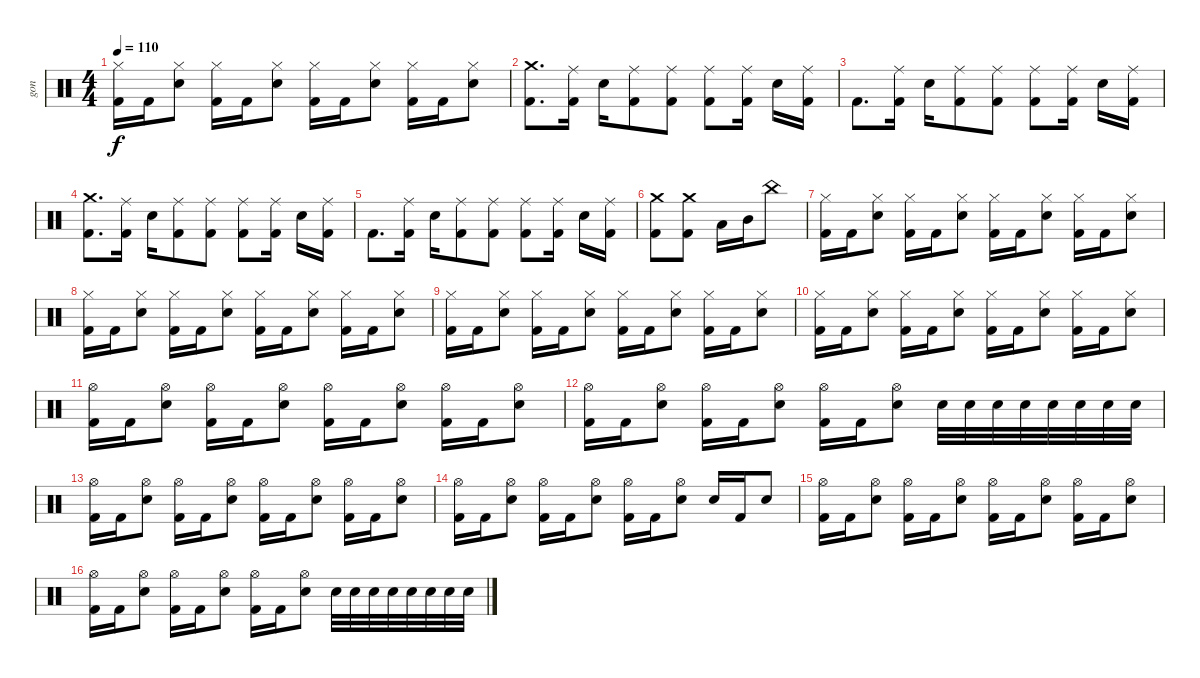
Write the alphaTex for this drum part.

\track ("gon" "gon") {instrument percussion}
\staff {score}
\articulation defaults
\ts (4 4)
\tempo 110
\clef neutral
\ks c
("Hi-Hat (closed)" "Kick (hit) 2").16{dy f} "Kick (hit) 2".16 ("Hi-Hat (closed)" "Electric Snare (hit)").8 ("Hi-Hat (closed)" "Kick (hit) 2").16 "Kick (hit) 2".16 ("Hi-Hat (closed)" "Electric Snare (hit)").8 ("Hi-Hat (closed)" "Kick (hit) 2").16 "Kick (hit) 2".16 ("Hi-Hat (closed)" "Electric Snare (hit)").8 ("Hi-Hat (closed)" "Kick (hit) 2").16 "Kick (hit) 2".16 ("Hi-Hat (closed)" "Electric Snare (hit)").8 |
("Crash medium (hit)" "Kick (hit) 2").8{d} ("Ride (middle)" "Kick (hit) 2").16 "Snare (hit) 2".16 ("Ride (middle)" "Kick (hit) 2").8 ("Ride (middle)" "Kick (hit) 2").8 ("Ride (middle)" "Kick (hit) 2").8 ("Ride (middle)" "Kick (hit) 2").16 "Snare (hit) 2".16 ("Ride (middle)" "Kick (hit) 2").16 |
"Kick (hit) 2".8{d} ("Ride (middle)" "Kick (hit) 2").16 "Snare (hit) 2".16 ("Ride (middle)" "Kick (hit) 2").8 ("Ride (middle)" "Kick (hit) 2").8 ("Ride (middle)" "Kick (hit) 2").8 ("Ride (middle)" "Kick (hit) 2").16 "Snare (hit) 2".16 ("Ride (middle)" "Kick (hit) 2").16 |
("Crash medium (hit)" "Kick (hit) 2").8{d} ("Ride (middle)" "Kick (hit) 2").16 "Snare (hit) 2".16 ("Ride (middle)" "Kick (hit) 2").8 ("Ride (middle)" "Kick (hit) 2").8 ("Ride (middle)" "Kick (hit) 2").8 ("Ride (middle)" "Kick (hit) 2").16 "Snare (hit) 2".16 ("Ride (middle)" "Kick (hit) 2").16 |
"Kick (hit) 2".8{d} ("Ride (middle)" "Kick (hit) 2").16 "Snare (hit) 2".16 ("Ride (middle)" "Kick (hit) 2").8 ("Ride (middle)" "Kick (hit) 2").8 ("Ride (middle)" "Kick (hit) 2").8 ("Ride (middle)" "Kick (hit) 2").16 "Snare (hit) 2".16 ("Ride (middle)" "Kick (hit) 2").16 |
("Crash medium (hit)" "Kick (hit) 2").8 ("Crash medium (hit)" "Kick (hit) 2").8 "Low Tom (hit)".16 "Mid Tom (hit)".16 "China (hit)".8 |
("Hi-Hat (closed)" "Kick (hit) 2").16 "Kick (hit) 2".16 ("Hi-Hat (closed)" "Electric Snare (hit)").8 ("Hi-Hat (closed)" "Kick (hit) 2").16 "Kick (hit) 2".16 ("Hi-Hat (closed)" "Electric Snare (hit)").8 ("Hi-Hat (closed)" "Kick (hit) 2").16 "Kick (hit) 2".16 ("Hi-Hat (closed)" "Electric Snare (hit)").8 ("Hi-Hat (closed)" "Kick (hit) 2").16 "Kick (hit) 2".16 ("Hi-Hat (closed)" "Electric Snare (hit)").8 |
("Hi-Hat (closed)" "Kick (hit) 2").16 "Kick (hit) 2".16 ("Hi-Hat (closed)" "Electric Snare (hit)").8 ("Hi-Hat (closed)" "Kick (hit) 2").16 "Kick (hit) 2".16 ("Hi-Hat (closed)" "Electric Snare (hit)").8 ("Hi-Hat (closed)" "Kick (hit) 2").16 "Kick (hit) 2".16 ("Hi-Hat (closed)" "Electric Snare (hit)").8 ("Hi-Hat (closed)" "Kick (hit) 2").16 "Kick (hit) 2".16 ("Hi-Hat (closed)" "Electric Snare (hit)").8 |
("Hi-Hat (closed)" "Kick (hit) 2").16 "Kick (hit) 2".16 ("Hi-Hat (closed)" "Electric Snare (hit)").8 ("Hi-Hat (closed)" "Kick (hit) 2").16 "Kick (hit) 2".16 ("Hi-Hat (closed)" "Electric Snare (hit)").8 ("Hi-Hat (closed)" "Kick (hit) 2").16 "Kick (hit) 2".16 ("Hi-Hat (closed)" "Electric Snare (hit)").8 ("Hi-Hat (closed)" "Kick (hit) 2").16 "Kick (hit) 2".16 ("Hi-Hat (closed)" "Electric Snare (hit)").8 |
("Hi-Hat (closed)" "Kick (hit) 2").16 "Kick (hit) 2".16 ("Hi-Hat (closed)" "Electric Snare (hit)").8 ("Hi-Hat (closed)" "Kick (hit) 2").16 "Kick (hit) 2".16 ("Hi-Hat (closed)" "Electric Snare (hit)").8 ("Hi-Hat (closed)" "Kick (hit) 2").16 "Kick (hit) 2".16 ("Hi-Hat (closed)" "Electric Snare (hit)").8 ("Hi-Hat (closed)" "Kick (hit) 2").16 "Kick (hit) 2".16 ("Hi-Hat (closed)" "Electric Snare (hit)").8 |
("Hi-Hat (open)" "Kick (hit) 2").16 "Kick (hit) 2".16 ("Hi-Hat (open)" "Electric Snare (hit)").8 ("Hi-Hat (open)" "Kick (hit) 2").16 "Kick (hit) 2".16 ("Hi-Hat (open)" "Electric Snare (hit)").8 ("Hi-Hat (open)" "Kick (hit) 2").16 "Kick (hit) 2".16 ("Hi-Hat (open)" "Electric Snare (hit)").8 ("Hi-Hat (open)" "Kick (hit) 2").16 "Kick (hit) 2".16 ("Hi-Hat (open)" "Electric Snare (hit)").8 |
("Hi-Hat (open)" "Kick (hit) 2").16 "Kick (hit) 2".16 ("Hi-Hat (open)" "Electric Snare (hit)").8 ("Hi-Hat (open)" "Kick (hit) 2").16 "Kick (hit) 2".16 ("Hi-Hat (open)" "Electric Snare (hit)").8 ("Hi-Hat (open)" "Kick (hit) 2").16 "Kick (hit) 2".16 ("Hi-Hat (open)" "Electric Snare (hit)").8 "Electric Snare (hit)".32 "Electric Snare (hit)".32 "Electric Snare (hit)".32 "Electric Snare (hit)".32 "Electric Snare (hit)".32 "Electric Snare (hit)".32 "Electric Snare (hit)".32 "Electric Snare (hit)".32 |
("Hi-Hat (open)" "Kick (hit) 2").16 "Kick (hit) 2".16 ("Hi-Hat (open)" "Electric Snare (hit)").8 ("Hi-Hat (open)" "Kick (hit) 2").16 "Kick (hit) 2".16 ("Hi-Hat (open)" "Electric Snare (hit)").8 ("Hi-Hat (open)" "Kick (hit) 2").16 "Kick (hit) 2".16 ("Hi-Hat (open)" "Electric Snare (hit)").8 ("Hi-Hat (open)" "Kick (hit) 2").16 "Kick (hit) 2".16 ("Hi-Hat (open)" "Electric Snare (hit)").8 |
("Hi-Hat (open)" "Kick (hit) 2").16 "Kick (hit) 2".16 ("Hi-Hat (open)" "Electric Snare (hit)").8 ("Hi-Hat (open)" "Kick (hit) 2").16 "Kick (hit) 2".16 ("Hi-Hat (open)" "Electric Snare (hit)").8 ("Hi-Hat (open)" "Kick (hit) 2").16 "Kick (hit) 2".16 ("Hi-Hat (open)" "Electric Snare (hit)").8 "Electric Snare (hit)".16 "Kick (hit) 2".16 "Electric Snare (hit)".8 |
("Hi-Hat (open)" "Kick (hit) 2").16 "Kick (hit) 2".16 ("Hi-Hat (open)" "Electric Snare (hit)").8 ("Hi-Hat (open)" "Kick (hit) 2").16 "Kick (hit) 2".16 ("Hi-Hat (open)" "Electric Snare (hit)").8 ("Hi-Hat (open)" "Kick (hit) 2").16 "Kick (hit) 2".16 ("Hi-Hat (open)" "Electric Snare (hit)").8 ("Hi-Hat (open)" "Kick (hit) 2").16 "Kick (hit) 2".16 ("Hi-Hat (open)" "Electric Snare (hit)").8 |
("Hi-Hat (open)" "Kick (hit) 2").16 "Kick (hit) 2".16 ("Hi-Hat (open)" "Electric Snare (hit)").8 ("Hi-Hat (open)" "Kick (hit) 2").16 "Kick (hit) 2".16 ("Hi-Hat (open)" "Electric Snare (hit)").8 ("Hi-Hat (open)" "Kick (hit) 2").16 "Kick (hit) 2".16 ("Hi-Hat (open)" "Electric Snare (hit)").8 "Electric Snare (hit)".32 "Electric Snare (hit)".32 "Electric Snare (hit)".32 "Electric Snare (hit)".32 "Electric Snare (hit)".32 "Electric Snare (hit)".32 "Electric Snare (hit)".32 "Electric Snare (hit)".32
